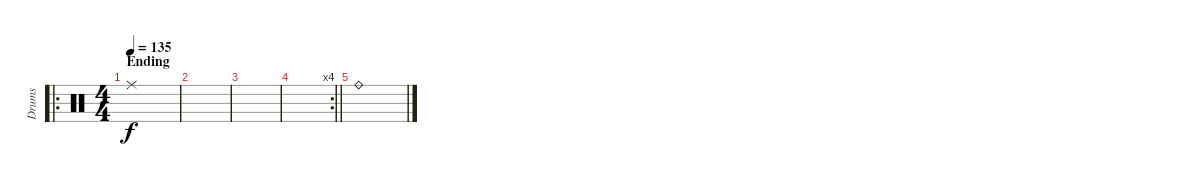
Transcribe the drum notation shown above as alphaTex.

\track ("Drums" "Drums") {instrument percussion}
\staff {score}
\articulation defaults
\ro
\ts (4 4)
\section ("" "Ending")
\tempo 135
\clef neutral
\ks c "Ride (middle)".1{dy f}
|
|
|
\rc 4
\barLineRight lightlight
|
"Ride (bell)".1
